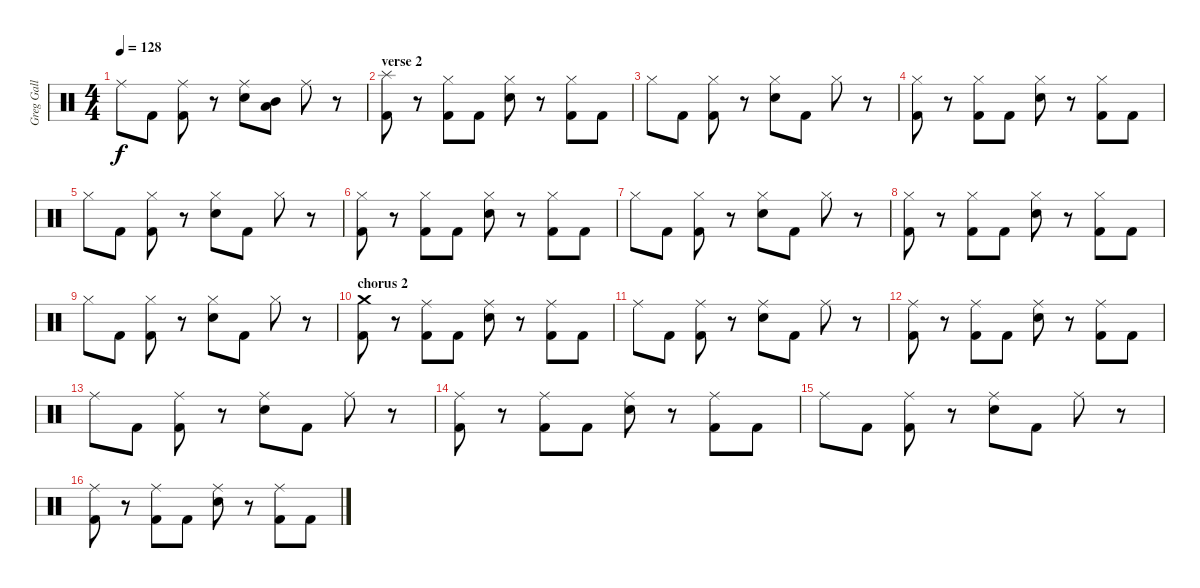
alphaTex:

\track ("Greg Gall" "Greg Gall") {instrument percussion}
\staff {score}
\articulation defaults
\ts (4 4)
\tempo 128
\clef neutral
\ks c "Ride (middle)".8{dy f} "Kick (hit) 2".8
("Ride (middle)" "Kick (hit) 2").8 r.8 ("Ride (middle)" "Electric Snare (hit)").8 ("Mid Tom (hit)" "Low Tom (hit)").8 "Ride (middle)".8 r.8 |
\section ("" "verse 2")
("Splash (hit)" "Kick (hit) 2").8 r.8 ("Hi-Hat (closed)" "Kick (hit) 2").8 "Kick (hit) 2".8 ("Hi-Hat (closed)" "Electric Snare (hit)").8 r.8 ("Hi-Hat (closed)" "Kick (hit) 2").8 "Kick (hit) 2".8 |
"Hi-Hat (closed)".8 "Kick (hit) 2".8 ("Hi-Hat (closed)" "Kick (hit) 2").8 r.8 ("Hi-Hat (closed)" "Electric Snare (hit)").8 "Kick (hit) 2".8 "Hi-Hat (closed)".8 r.8 |
("Hi-Hat (closed)" "Kick (hit) 2").8 r.8 ("Hi-Hat (closed)" "Kick (hit) 2").8 "Kick (hit) 2".8 ("Hi-Hat (closed)" "Electric Snare (hit)").8 r.8 ("Hi-Hat (closed)" "Kick (hit) 2").8 "Kick (hit) 2".8 |
"Hi-Hat (closed)".8 "Kick (hit) 2".8 ("Hi-Hat (closed)" "Kick (hit) 2").8 r.8 ("Hi-Hat (closed)" "Electric Snare (hit)").8 "Kick (hit) 2".8 "Hi-Hat (closed)".8 r.8 |
("Hi-Hat (closed)" "Kick (hit) 2").8 r.8 ("Hi-Hat (closed)" "Kick (hit) 2").8 "Kick (hit) 2".8 ("Hi-Hat (closed)" "Electric Snare (hit)").8 r.8 ("Hi-Hat (closed)" "Kick (hit) 2").8 "Kick (hit) 2".8 |
"Hi-Hat (closed)".8 "Kick (hit) 2".8 ("Hi-Hat (closed)" "Kick (hit) 2").8 r.8 ("Hi-Hat (closed)" "Electric Snare (hit)").8 "Kick (hit) 2".8 "Hi-Hat (closed)".8 r.8 |
("Hi-Hat (closed)" "Kick (hit) 2").8 r.8 ("Hi-Hat (closed)" "Kick (hit) 2").8 "Kick (hit) 2".8 ("Hi-Hat (closed)" "Electric Snare (hit)").8 r.8 ("Hi-Hat (closed)" "Kick (hit) 2").8 "Kick (hit) 2".8 |
"Hi-Hat (closed)".8 "Kick (hit) 2".8 ("Hi-Hat (closed)" "Kick (hit) 2").8 r.8 ("Hi-Hat (closed)" "Electric Snare (hit)").8 "Kick (hit) 2".8 "Hi-Hat (closed)".8 r.8 |
\section ("" "chorus 2")
("Crash medium (hit)" "Kick (hit) 2").8 r.8 ("Ride (middle)" "Kick (hit) 2").8 "Kick (hit) 2".8 ("Ride (middle)" "Electric Snare (hit)").8 r.8 ("Ride (middle)" "Kick (hit) 2").8 "Kick (hit) 2".8 |
"Ride (middle)".8 "Kick (hit) 2".8 ("Ride (middle)" "Kick (hit) 2").8 r.8 ("Ride (middle)" "Electric Snare (hit)").8 "Kick (hit) 2".8 "Ride (middle)".8 r.8 |
("Ride (middle)" "Kick (hit) 2").8 r.8 ("Ride (middle)" "Kick (hit) 2").8 "Kick (hit) 2".8 ("Ride (middle)" "Electric Snare (hit)").8 r.8 ("Ride (middle)" "Kick (hit) 2").8 "Kick (hit) 2".8 |
"Ride (middle)".8 "Kick (hit) 2".8 ("Ride (middle)" "Kick (hit) 2").8 r.8 ("Ride (middle)" "Electric Snare (hit)").8 "Kick (hit) 2".8 "Ride (middle)".8 r.8 |
("Ride (middle)" "Kick (hit) 2").8 r.8 ("Ride (middle)" "Kick (hit) 2").8 "Kick (hit) 2".8 ("Ride (middle)" "Electric Snare (hit)").8 r.8 ("Ride (middle)" "Kick (hit) 2").8 "Kick (hit) 2".8 |
"Ride (middle)".8 "Kick (hit) 2".8 ("Ride (middle)" "Kick (hit) 2").8 r.8 ("Ride (middle)" "Electric Snare (hit)").8 "Kick (hit) 2".8 "Ride (middle)".8 r.8 |
("Ride (middle)" "Kick (hit) 2").8 r.8 ("Ride (middle)" "Kick (hit) 2").8 "Kick (hit) 2".8 ("Ride (middle)" "Electric Snare (hit)").8 r.8 ("Ride (middle)" "Kick (hit) 2").8 "Kick (hit) 2".8
